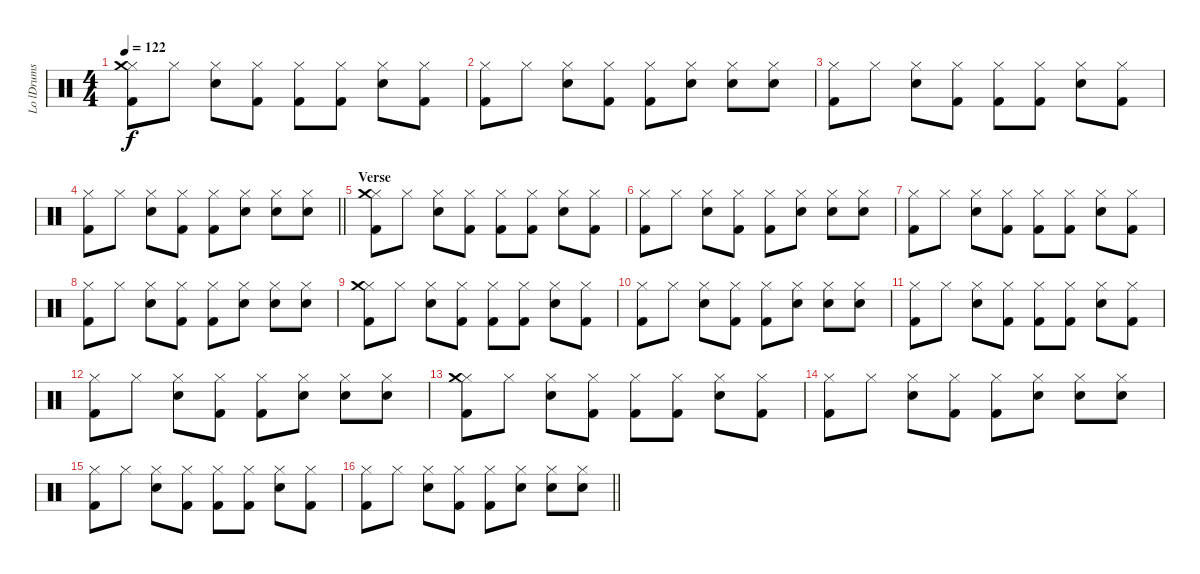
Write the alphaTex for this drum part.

\track ("Lo lDrums" "Lo lDrums") {instrument percussion}
\staff {score}
\articulation defaults
\ts (4 4)
\tempo 122
\clef neutral
\ks c
("Hi-Hat (closed)" "Crash medium (hit)" "Kick (hit) 2").8{dy f} "Hi-Hat (closed)".8 ("Hi-Hat (closed)" "Snare (hit) 2").8 ("Hi-Hat (closed)" "Kick (hit) 2").8 ("Hi-Hat (closed)" "Kick (hit) 2").8 ("Hi-Hat (closed)" "Kick (hit) 2").8 ("Hi-Hat (closed)" "Snare (hit) 2").8 ("Hi-Hat (closed)" "Kick (hit) 2").8 |
("Kick (hit) 2" "Hi-Hat (closed)").8 "Hi-Hat (closed)".8 ("Snare (hit) 2" "Hi-Hat (closed)").8 ("Kick (hit) 2" "Hi-Hat (closed)").8 ("Kick (hit) 2" "Hi-Hat (closed)").8 ("Snare (hit) 2" "Hi-Hat (closed)").8 ("Snare (hit) 2" "Hi-Hat (closed)").8 ("Snare (hit) 2" "Hi-Hat (closed)").8 |
("Kick (hit) 2" "Hi-Hat (closed)").8 "Hi-Hat (closed)".8 ("Hi-Hat (closed)" "Snare (hit) 2").8 ("Hi-Hat (closed)" "Kick (hit) 2").8 ("Hi-Hat (closed)" "Kick (hit) 2").8 ("Hi-Hat (closed)" "Kick (hit) 2").8 ("Hi-Hat (closed)" "Snare (hit) 2").8 ("Hi-Hat (closed)" "Kick (hit) 2").8 |
\barLineRight lightlight
("Kick (hit) 2" "Hi-Hat (closed)").8 "Hi-Hat (closed)".8 ("Snare (hit) 2" "Hi-Hat (closed)").8 ("Kick (hit) 2" "Hi-Hat (closed)").8 ("Kick (hit) 2" "Hi-Hat (closed)").8 ("Snare (hit) 2" "Hi-Hat (closed)").8 ("Snare (hit) 2" "Hi-Hat (closed)").8 ("Snare (hit) 2" "Hi-Hat (closed)").8 |
\section ("" "Verse")
("Hi-Hat (closed)" "Crash medium (hit)" "Kick (hit) 2").8 "Hi-Hat (closed)".8 ("Hi-Hat (closed)" "Snare (hit) 2").8 ("Hi-Hat (closed)" "Kick (hit) 2").8 ("Hi-Hat (closed)" "Kick (hit) 2").8 ("Hi-Hat (closed)" "Kick (hit) 2").8 ("Hi-Hat (closed)" "Snare (hit) 2").8 ("Hi-Hat (closed)" "Kick (hit) 2").8 |
("Kick (hit) 2" "Hi-Hat (closed)").8 "Hi-Hat (closed)".8 ("Snare (hit) 2" "Hi-Hat (closed)").8 ("Kick (hit) 2" "Hi-Hat (closed)").8 ("Kick (hit) 2" "Hi-Hat (closed)").8 ("Snare (hit) 2" "Hi-Hat (closed)").8 ("Snare (hit) 2" "Hi-Hat (closed)").8 ("Snare (hit) 2" "Hi-Hat (closed)").8 |
("Kick (hit) 2" "Hi-Hat (closed)").8 "Hi-Hat (closed)".8 ("Hi-Hat (closed)" "Snare (hit) 2").8 ("Hi-Hat (closed)" "Kick (hit) 2").8 ("Hi-Hat (closed)" "Kick (hit) 2").8 ("Hi-Hat (closed)" "Kick (hit) 2").8 ("Hi-Hat (closed)" "Snare (hit) 2").8 ("Hi-Hat (closed)" "Kick (hit) 2").8 |
("Kick (hit) 2" "Hi-Hat (closed)").8 "Hi-Hat (closed)".8 ("Snare (hit) 2" "Hi-Hat (closed)").8 ("Kick (hit) 2" "Hi-Hat (closed)").8 ("Kick (hit) 2" "Hi-Hat (closed)").8 ("Snare (hit) 2" "Hi-Hat (closed)").8 ("Snare (hit) 2" "Hi-Hat (closed)").8 ("Snare (hit) 2" "Hi-Hat (closed)").8 |
("Hi-Hat (closed)" "Crash medium (hit)" "Kick (hit) 2").8 "Hi-Hat (closed)".8 ("Hi-Hat (closed)" "Snare (hit) 2").8 ("Hi-Hat (closed)" "Kick (hit) 2").8 ("Hi-Hat (closed)" "Kick (hit) 2").8 ("Hi-Hat (closed)" "Kick (hit) 2").8 ("Hi-Hat (closed)" "Snare (hit) 2").8 ("Hi-Hat (closed)" "Kick (hit) 2").8 |
("Kick (hit) 2" "Hi-Hat (closed)").8 "Hi-Hat (closed)".8 ("Snare (hit) 2" "Hi-Hat (closed)").8 ("Kick (hit) 2" "Hi-Hat (closed)").8 ("Kick (hit) 2" "Hi-Hat (closed)").8 ("Snare (hit) 2" "Hi-Hat (closed)").8 ("Snare (hit) 2" "Hi-Hat (closed)").8 ("Snare (hit) 2" "Hi-Hat (closed)").8 |
("Kick (hit) 2" "Hi-Hat (closed)").8 "Hi-Hat (closed)".8 ("Hi-Hat (closed)" "Snare (hit) 2").8 ("Hi-Hat (closed)" "Kick (hit) 2").8 ("Hi-Hat (closed)" "Kick (hit) 2").8 ("Hi-Hat (closed)" "Kick (hit) 2").8 ("Hi-Hat (closed)" "Snare (hit) 2").8 ("Hi-Hat (closed)" "Kick (hit) 2").8 |
("Kick (hit) 2" "Hi-Hat (closed)").8 "Hi-Hat (closed)".8 ("Snare (hit) 2" "Hi-Hat (closed)").8 ("Kick (hit) 2" "Hi-Hat (closed)").8 ("Kick (hit) 2" "Hi-Hat (closed)").8 ("Snare (hit) 2" "Hi-Hat (closed)").8 ("Snare (hit) 2" "Hi-Hat (closed)").8 ("Snare (hit) 2" "Hi-Hat (closed)").8 |
("Hi-Hat (closed)" "Crash medium (hit)" "Kick (hit) 2").8 "Hi-Hat (closed)".8 ("Hi-Hat (closed)" "Snare (hit) 2").8 ("Hi-Hat (closed)" "Kick (hit) 2").8 ("Hi-Hat (closed)" "Kick (hit) 2").8 ("Hi-Hat (closed)" "Kick (hit) 2").8 ("Hi-Hat (closed)" "Snare (hit) 2").8 ("Hi-Hat (closed)" "Kick (hit) 2").8 |
("Kick (hit) 2" "Hi-Hat (closed)").8 "Hi-Hat (closed)".8 ("Snare (hit) 2" "Hi-Hat (closed)").8 ("Kick (hit) 2" "Hi-Hat (closed)").8 ("Kick (hit) 2" "Hi-Hat (closed)").8 ("Snare (hit) 2" "Hi-Hat (closed)").8 ("Snare (hit) 2" "Hi-Hat (closed)").8 ("Snare (hit) 2" "Hi-Hat (closed)").8 |
("Kick (hit) 2" "Hi-Hat (closed)").8 "Hi-Hat (closed)".8 ("Hi-Hat (closed)" "Snare (hit) 2").8 ("Hi-Hat (closed)" "Kick (hit) 2").8 ("Hi-Hat (closed)" "Kick (hit) 2").8 ("Hi-Hat (closed)" "Kick (hit) 2").8 ("Hi-Hat (closed)" "Snare (hit) 2").8 ("Hi-Hat (closed)" "Kick (hit) 2").8 |
\barLineRight lightlight
("Kick (hit) 2" "Hi-Hat (closed)").8 "Hi-Hat (closed)".8 ("Snare (hit) 2" "Hi-Hat (closed)").8 ("Kick (hit) 2" "Hi-Hat (closed)").8 ("Kick (hit) 2" "Hi-Hat (closed)").8 ("Snare (hit) 2" "Hi-Hat (closed)").8 ("Snare (hit) 2" "Hi-Hat (closed)").8 ("Snare (hit) 2" "Hi-Hat (closed)").8
